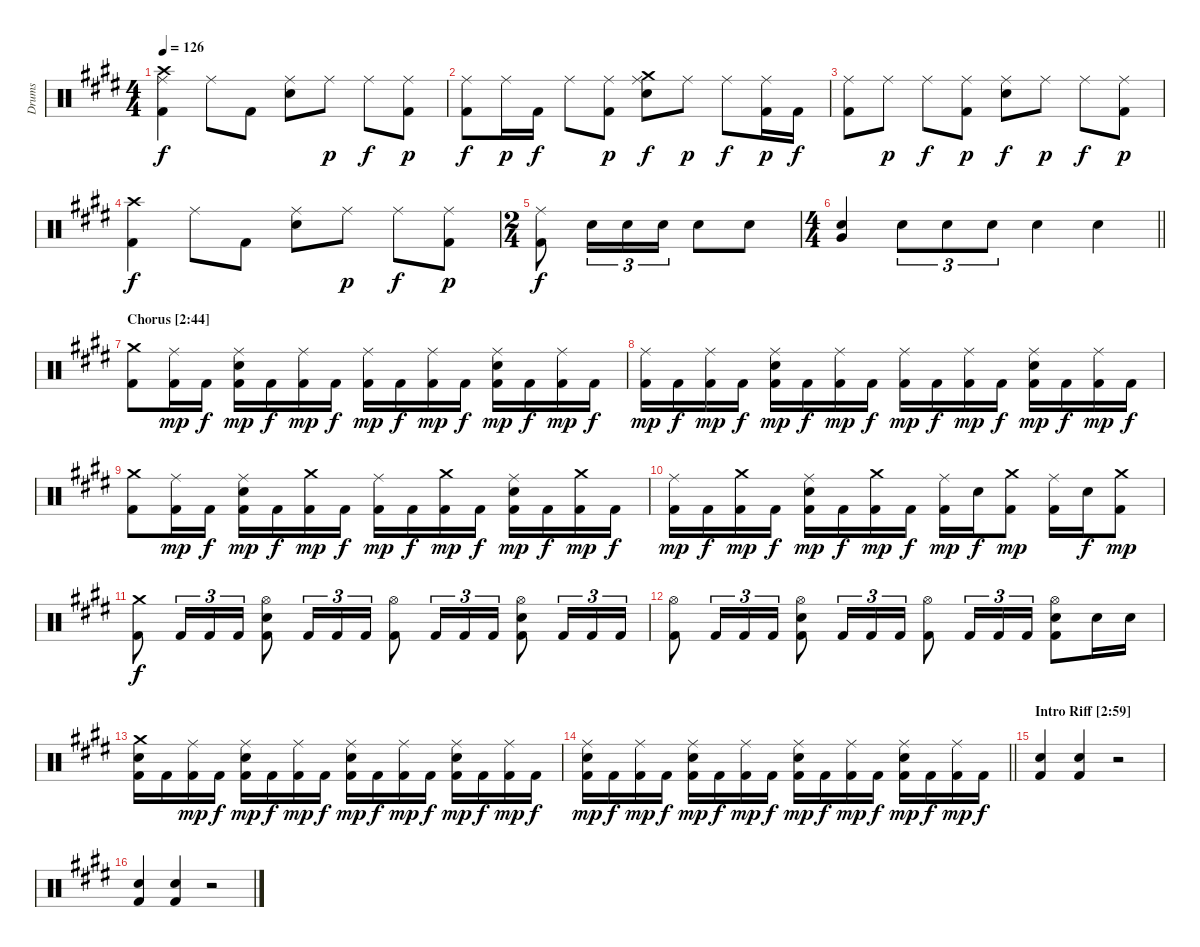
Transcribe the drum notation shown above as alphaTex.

\track ("Drums" "Drums") {instrument percussion}
\staff {score}
\articulation defaults
\ts (4 4)
\tempo 126
\clef neutral
\ks c#minor
("Crash high (hit)" "Ride (middle)" "Kick (hit) 2").4{dy f} "Ride (middle)".8 "Kick (hit) 2".8 ("Ride (middle)" "Snare (hit) 2").8 "Ride (middle)".8{dy p} "Ride (middle)".8{dy f} ("Ride (middle)" "Kick (hit) 2").8{dy p} |
("Ride (middle)" "Kick (hit) 2").8{dy f} "Ride (middle)".16{dy p} "Kick (hit) 2".16{dy f} "Ride (middle)".8 ("Ride (middle)" "Kick (hit) 2").8{dy p} ("Crash medium (hit)" "Ride (middle)" "Snare (hit) 2").8{dy f} "Ride (middle)".8{dy p} "Ride (middle)".8{dy f} ("Ride (middle)" "Kick (hit) 2").16{dy p} "Kick (hit) 2".16{dy f} |
("Ride (middle)" "Kick (hit) 2").8 "Ride (middle)".8{dy p} "Ride (middle)".8{dy f} ("Ride (middle)" "Kick (hit) 2").8{dy p} ("Ride (middle)" "Snare (hit) 2").8{dy f} "Ride (middle)".8{dy p} "Ride (middle)".8{dy f} ("Ride (middle)" "Kick (hit) 2").8{dy p} |
("Crash high (hit)" "Kick (hit) 2").4{dy f} "Ride (middle)".8 "Kick (hit) 2".8 ("Ride (middle)" "Snare (hit) 2").8 "Ride (middle)".8{dy p} "Ride (middle)".8{dy f} ("Ride (middle)" "Kick (hit) 2").8{dy p} |
\ts (2 4)
("Ride (middle)" "Kick (hit) 2").8{dy f} "Snare (hit) 2".16{tu (3 2)} "Snare (hit) 2".16{tu (3 2)} "Snare (hit) 2".16{tu (3 2)} "Snare (hit) 2".8 "Snare (hit) 2".8 |
\ts (4 4)
\barLineRight lightlight
("Very Low Tom (hit)" "Snare (hit) 2").4 "Snare (hit) 2".8{tu (3 2)} "Snare (hit) 2".8{tu (3 2)} "Snare (hit) 2".8{tu (3 2)} "Snare (hit) 2".4 "Snare (hit) 2".4 |
\section ("" "Chorus [2:44]")
("Crash medium (hit)" "Kick (hit) 2").8 ("Ride (middle)" "Kick (hit) 2").16{dy mp} "Kick (hit) 2".16{dy f} ("Ride (middle)" "Snare (hit) 2" "Kick (hit) 2").16{dy mp} "Kick (hit) 2".16{dy f} ("Ride (middle)" "Kick (hit) 2").16{dy mp} "Kick (hit) 2".16{dy f} ("Ride (middle)" "Kick (hit) 2").16{dy mp} "Kick (hit) 2".16{dy f} ("Ride (middle)" "Kick (hit) 2").16{dy mp} "Kick (hit) 2".16{dy f} ("Ride (middle)" "Snare (hit) 2" "Kick (hit) 2").16{dy mp} "Kick (hit) 2".16{dy f} ("Ride (middle)" "Kick (hit) 2").16{dy mp} "Kick (hit) 2".16{dy f} |
("Ride (middle)" "Kick (hit) 2").16{dy mp} "Kick (hit) 2".16{dy f} ("Ride (middle)" "Kick (hit) 2").16{dy mp} "Kick (hit) 2".16{dy f} ("Ride (middle)" "Snare (hit) 2" "Kick (hit) 2").16{dy mp} "Kick (hit) 2".16{dy f} ("Ride (middle)" "Kick (hit) 2").16{dy mp} "Kick (hit) 2".16{dy f} ("Ride (middle)" "Kick (hit) 2").16{dy mp} "Kick (hit) 2".16{dy f} ("Ride (middle)" "Kick (hit) 2").16{dy mp} "Kick (hit) 2".16{dy f} ("Ride (middle)" "Snare (hit) 2" "Kick (hit) 2").16{dy mp} "Kick (hit) 2".16{dy f} ("Ride (middle)" "Kick (hit) 2").16{dy mp} "Kick (hit) 2".16{dy f} |
("Crash medium (hit)" "Kick (hit) 2").8 ("Ride (middle)" "Kick (hit) 2").16{dy mp} "Kick (hit) 2".16{dy f} ("Ride (middle)" "Snare (hit) 2" "Kick (hit) 2").16{dy mp} "Kick (hit) 2".16{dy f} ("Crash medium (hit)" "Kick (hit) 2").16{dy mp} "Kick (hit) 2".16{dy f} ("Ride (middle)" "Kick (hit) 2").16{dy mp} "Kick (hit) 2".16{dy f} ("Crash medium (hit)" "Kick (hit) 2").16{dy mp} "Kick (hit) 2".16{dy f} ("Ride (middle)" "Snare (hit) 2" "Kick (hit) 2").16{dy mp} "Kick (hit) 2".16{dy f} ("Crash medium (hit)" "Kick (hit) 2").16{dy mp} "Kick (hit) 2".16{dy f} |
("Ride (middle)" "Kick (hit) 2").16{dy mp} "Kick (hit) 2".16{dy f} ("Crash medium (hit)" "Kick (hit) 2").16{dy mp} "Kick (hit) 2".16{dy f} ("Ride (middle)" "Snare (hit) 2" "Kick (hit) 2").16{dy mp} "Kick (hit) 2".16{dy f} ("Crash medium (hit)" "Kick (hit) 2").16{dy mp} "Kick (hit) 2".16{dy f} ("Ride (middle)" "Kick (hit) 2").16{dy mp} "Snare (hit) 2".16{dy f} ("Crash medium (hit)" "Kick (hit) 2").8{dy mp} ("Ride (middle)" "Kick (hit) 2").16 "Snare (hit) 2".16{dy f} ("Crash medium (hit)" "Kick (hit) 2").8{dy mp} |
("Crash medium (hit)" "Kick (hit) 2").8{dy f} "Kick (hit) 2".16{tu (3 2)} "Kick (hit) 2".16{tu (3 2)} "Kick (hit) 2".16{tu (3 2)} ("Hi-Hat (open)" "Snare (hit) 2" "Kick (hit) 2").8 "Kick (hit) 2".16{tu (3 2)} "Kick (hit) 2".16{tu (3 2)} "Kick (hit) 2".16{tu (3 2)} ("Hi-Hat (open)" "Kick (hit) 2").8 "Kick (hit) 2".16{tu (3 2)} "Kick (hit) 2".16{tu (3 2)} "Kick (hit) 2".16{tu (3 2)} ("Hi-Hat (open)" "Snare (hit) 2" "Kick (hit) 2").8 "Kick (hit) 2".16{tu (3 2)} "Kick (hit) 2".16{tu (3 2)} "Kick (hit) 2".16{tu (3 2)} |
("Hi-Hat (open)" "Kick (hit) 2").8 "Kick (hit) 2".16{tu (3 2)} "Kick (hit) 2".16{tu (3 2)} "Kick (hit) 2".16{tu (3 2)} ("Hi-Hat (open)" "Snare (hit) 2" "Kick (hit) 2").8 "Kick (hit) 2".16{tu (3 2)} "Kick (hit) 2".16{tu (3 2)} "Kick (hit) 2".16{tu (3 2)} ("Hi-Hat (open)" "Kick (hit) 2").8 "Kick (hit) 2".16{tu (3 2)} "Kick (hit) 2".16{tu (3 2)} "Kick (hit) 2".16{tu (3 2)} ("Hi-Hat (open)" "Snare (hit) 2" "Kick (hit) 2").8 "Snare (hit) 2".16 "Snare (hit) 2".16 |
("Crash medium (hit)" "Snare (hit) 2" "Kick (hit) 2").16 "Kick (hit) 2".16 ("Ride (middle)" "Kick (hit) 2").16{dy mp} "Kick (hit) 2".16{dy f} ("Ride (middle)" "Snare (hit) 2" "Kick (hit) 2").16{dy mp} "Kick (hit) 2".16{dy f} ("Ride (middle)" "Kick (hit) 2").16{dy mp} "Kick (hit) 2".16{dy f} ("Ride (middle)" "Snare (hit) 2" "Kick (hit) 2").16{dy mp} "Kick (hit) 2".16{dy f} ("Ride (middle)" "Kick (hit) 2").16{dy mp} "Kick (hit) 2".16{dy f} ("Ride (middle)" "Snare (hit) 2" "Kick (hit) 2").16{dy mp} "Kick (hit) 2".16{dy f} ("Ride (middle)" "Kick (hit) 2").16{dy mp} "Kick (hit) 2".16{dy f} |
\barLineRight lightlight
("Ride (middle)" "Snare (hit) 2" "Kick (hit) 2").16{dy mp} "Kick (hit) 2".16{dy f} ("Ride (middle)" "Kick (hit) 2").16{dy mp} "Kick (hit) 2".16{dy f} ("Ride (middle)" "Snare (hit) 2" "Kick (hit) 2").16{dy mp} "Kick (hit) 2".16{dy f} ("Ride (middle)" "Kick (hit) 2").16{dy mp} "Kick (hit) 2".16{dy f} ("Ride (middle)" "Snare (hit) 2" "Kick (hit) 2").16{dy mp} "Kick (hit) 2".16{dy f} ("Ride (middle)" "Kick (hit) 2").16{dy mp} "Kick (hit) 2".16{dy f} ("Ride (middle)" "Snare (hit) 2" "Kick (hit) 2").16{dy mp} "Kick (hit) 2".16{dy f} ("Ride (middle)" "Kick (hit) 2").16{dy mp} "Kick (hit) 2".16{dy f} |
\section ("" "Intro Riff [2:59]")
("Snare (hit) 2" "Kick (hit) 2").4 ("Snare (hit) 2" "Kick (hit) 2").4 r.2 |
("Snare (hit) 2" "Kick (hit) 2").4 ("Snare (hit) 2" "Kick (hit) 2").4 r.2
